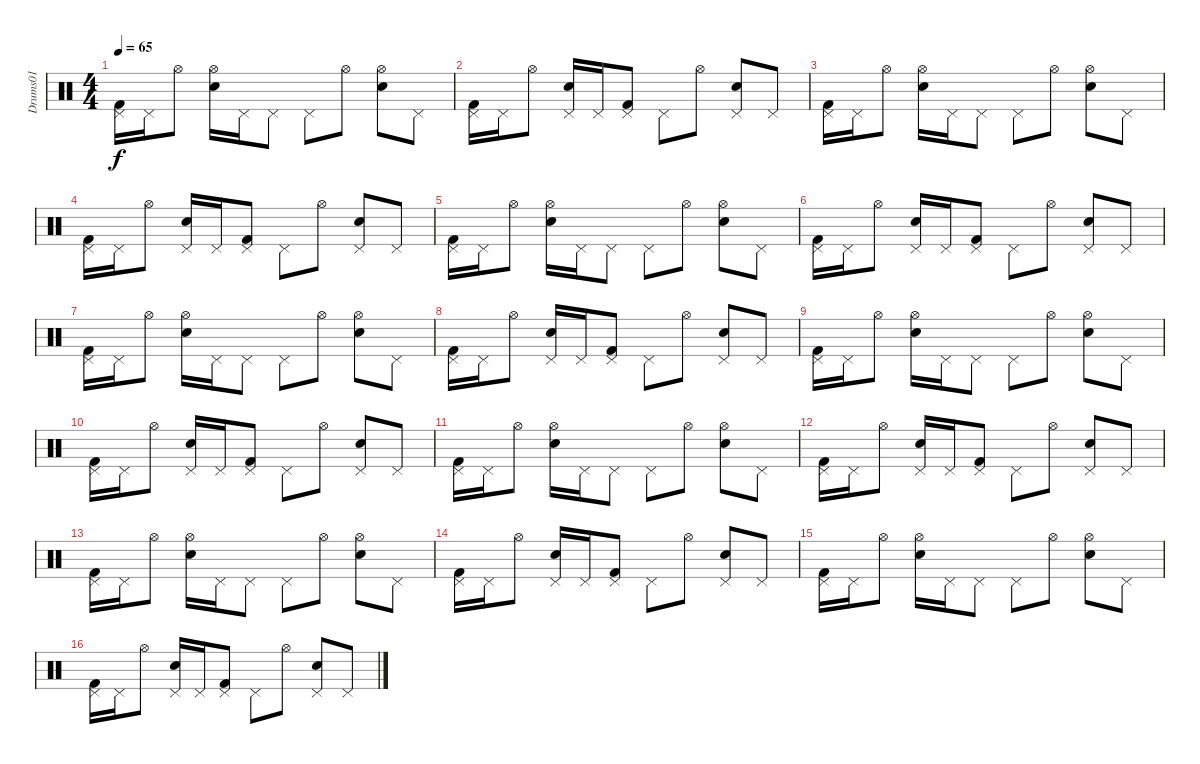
\track ("Drums01" "Drums01") {instrument percussion}
\staff {score}
\articulation defaults
\ts (4 4)
\tempo 65
\clef neutral
\ks c
("Pedal Hi-Hat (hit)" "Kick (hit) 2").16{dy f} "Pedal Hi-Hat (hit)".16 "Hi-Hat (open)".8 ("Hi-Hat (open)" "Snare (hit) 2").16 "Pedal Hi-Hat (hit)".16 "Pedal Hi-Hat (hit)".8 "Pedal Hi-Hat (hit)".8 "Hi-Hat (open)".8 ("Hi-Hat (open)" "Snare (hit) 2").8 "Pedal Hi-Hat (hit)".8 |
("Pedal Hi-Hat (hit)" "Kick (hit) 2").16 "Pedal Hi-Hat (hit)".16 "Hi-Hat (open)".8 ("Pedal Hi-Hat (hit)" "Snare (hit) 2").16 "Pedal Hi-Hat (hit)".16 ("Pedal Hi-Hat (hit)" "Kick (hit) 2").8 "Pedal Hi-Hat (hit)".8 "Hi-Hat (open)".8 ("Pedal Hi-Hat (hit)" "Snare (hit) 2").8 "Pedal Hi-Hat (hit)".8 |
("Pedal Hi-Hat (hit)" "Kick (hit) 2").16 "Pedal Hi-Hat (hit)".16 "Hi-Hat (open)".8 ("Hi-Hat (open)" "Snare (hit) 2").16 "Pedal Hi-Hat (hit)".16 "Pedal Hi-Hat (hit)".8 "Pedal Hi-Hat (hit)".8 "Hi-Hat (open)".8 ("Hi-Hat (open)" "Snare (hit) 2").8 "Pedal Hi-Hat (hit)".8 |
("Pedal Hi-Hat (hit)" "Kick (hit) 2").16 "Pedal Hi-Hat (hit)".16 "Hi-Hat (open)".8 ("Pedal Hi-Hat (hit)" "Snare (hit) 2").16 "Pedal Hi-Hat (hit)".16 ("Pedal Hi-Hat (hit)" "Kick (hit) 2").8 "Pedal Hi-Hat (hit)".8 "Hi-Hat (open)".8 ("Pedal Hi-Hat (hit)" "Snare (hit) 2").8 "Pedal Hi-Hat (hit)".8 |
("Pedal Hi-Hat (hit)" "Kick (hit) 2").16 "Pedal Hi-Hat (hit)".16 "Hi-Hat (open)".8 ("Hi-Hat (open)" "Snare (hit) 2").16 "Pedal Hi-Hat (hit)".16 "Pedal Hi-Hat (hit)".8 "Pedal Hi-Hat (hit)".8 "Hi-Hat (open)".8 ("Hi-Hat (open)" "Snare (hit) 2").8 "Pedal Hi-Hat (hit)".8 |
("Pedal Hi-Hat (hit)" "Kick (hit) 2").16 "Pedal Hi-Hat (hit)".16 "Hi-Hat (open)".8 ("Pedal Hi-Hat (hit)" "Snare (hit) 2").16 "Pedal Hi-Hat (hit)".16 ("Pedal Hi-Hat (hit)" "Kick (hit) 2").8 "Pedal Hi-Hat (hit)".8 "Hi-Hat (open)".8 ("Pedal Hi-Hat (hit)" "Snare (hit) 2").8 "Pedal Hi-Hat (hit)".8 |
("Pedal Hi-Hat (hit)" "Kick (hit) 2").16 "Pedal Hi-Hat (hit)".16 "Hi-Hat (open)".8 ("Hi-Hat (open)" "Snare (hit) 2").16 "Pedal Hi-Hat (hit)".16 "Pedal Hi-Hat (hit)".8 "Pedal Hi-Hat (hit)".8 "Hi-Hat (open)".8 ("Hi-Hat (open)" "Snare (hit) 2").8 "Pedal Hi-Hat (hit)".8 |
("Pedal Hi-Hat (hit)" "Kick (hit) 2").16 "Pedal Hi-Hat (hit)".16 "Hi-Hat (open)".8 ("Pedal Hi-Hat (hit)" "Snare (hit) 2").16 "Pedal Hi-Hat (hit)".16 ("Pedal Hi-Hat (hit)" "Kick (hit) 2").8 "Pedal Hi-Hat (hit)".8 "Hi-Hat (open)".8 ("Pedal Hi-Hat (hit)" "Snare (hit) 2").8 "Pedal Hi-Hat (hit)".8 |
("Pedal Hi-Hat (hit)" "Kick (hit) 2").16 "Pedal Hi-Hat (hit)".16 "Hi-Hat (open)".8 ("Hi-Hat (open)" "Snare (hit) 2").16 "Pedal Hi-Hat (hit)".16 "Pedal Hi-Hat (hit)".8 "Pedal Hi-Hat (hit)".8 "Hi-Hat (open)".8 ("Hi-Hat (open)" "Snare (hit) 2").8 "Pedal Hi-Hat (hit)".8 |
("Pedal Hi-Hat (hit)" "Kick (hit) 2").16 "Pedal Hi-Hat (hit)".16 "Hi-Hat (open)".8 ("Pedal Hi-Hat (hit)" "Snare (hit) 2").16 "Pedal Hi-Hat (hit)".16 ("Pedal Hi-Hat (hit)" "Kick (hit) 2").8 "Pedal Hi-Hat (hit)".8 "Hi-Hat (open)".8 ("Pedal Hi-Hat (hit)" "Snare (hit) 2").8 "Pedal Hi-Hat (hit)".8 |
("Pedal Hi-Hat (hit)" "Kick (hit) 2").16 "Pedal Hi-Hat (hit)".16 "Hi-Hat (open)".8 ("Hi-Hat (open)" "Snare (hit) 2").16 "Pedal Hi-Hat (hit)".16 "Pedal Hi-Hat (hit)".8 "Pedal Hi-Hat (hit)".8 "Hi-Hat (open)".8 ("Hi-Hat (open)" "Snare (hit) 2").8 "Pedal Hi-Hat (hit)".8 |
("Pedal Hi-Hat (hit)" "Kick (hit) 2").16 "Pedal Hi-Hat (hit)".16 "Hi-Hat (open)".8 ("Pedal Hi-Hat (hit)" "Snare (hit) 2").16 "Pedal Hi-Hat (hit)".16 ("Pedal Hi-Hat (hit)" "Kick (hit) 2").8 "Pedal Hi-Hat (hit)".8 "Hi-Hat (open)".8 ("Pedal Hi-Hat (hit)" "Snare (hit) 2").8 "Pedal Hi-Hat (hit)".8 |
("Pedal Hi-Hat (hit)" "Kick (hit) 2").16 "Pedal Hi-Hat (hit)".16 "Hi-Hat (open)".8 ("Hi-Hat (open)" "Snare (hit) 2").16 "Pedal Hi-Hat (hit)".16 "Pedal Hi-Hat (hit)".8 "Pedal Hi-Hat (hit)".8 "Hi-Hat (open)".8 ("Hi-Hat (open)" "Snare (hit) 2").8 "Pedal Hi-Hat (hit)".8 |
("Pedal Hi-Hat (hit)" "Kick (hit) 2").16 "Pedal Hi-Hat (hit)".16 "Hi-Hat (open)".8 ("Pedal Hi-Hat (hit)" "Snare (hit) 2").16 "Pedal Hi-Hat (hit)".16 ("Pedal Hi-Hat (hit)" "Kick (hit) 2").8 "Pedal Hi-Hat (hit)".8 "Hi-Hat (open)".8 ("Pedal Hi-Hat (hit)" "Snare (hit) 2").8 "Pedal Hi-Hat (hit)".8 |
("Pedal Hi-Hat (hit)" "Kick (hit) 2").16 "Pedal Hi-Hat (hit)".16 "Hi-Hat (open)".8 ("Hi-Hat (open)" "Snare (hit) 2").16 "Pedal Hi-Hat (hit)".16 "Pedal Hi-Hat (hit)".8 "Pedal Hi-Hat (hit)".8 "Hi-Hat (open)".8 ("Hi-Hat (open)" "Snare (hit) 2").8 "Pedal Hi-Hat (hit)".8 |
("Pedal Hi-Hat (hit)" "Kick (hit) 2").16 "Pedal Hi-Hat (hit)".16 "Hi-Hat (open)".8 ("Pedal Hi-Hat (hit)" "Snare (hit) 2").16 "Pedal Hi-Hat (hit)".16 ("Pedal Hi-Hat (hit)" "Kick (hit) 2").8 "Pedal Hi-Hat (hit)".8 "Hi-Hat (open)".8 ("Pedal Hi-Hat (hit)" "Snare (hit) 2").8 "Pedal Hi-Hat (hit)".8
